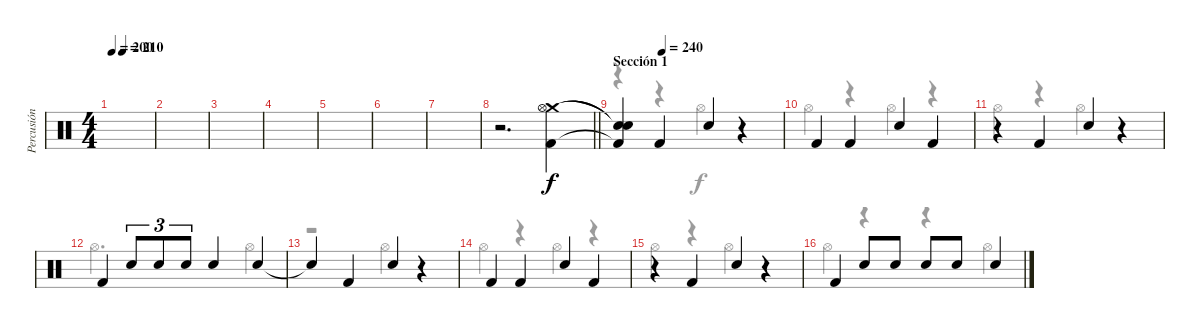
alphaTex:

\track ("Percusión" "Percusión") {instrument percussion}
\staff {score}
\articulation defaults
\voice
\ts (4 4)
\tempo 200
\tempo (210 0.25)
\clef neutral
\ks c
|
|
|
|
|
|
|
\barLineRight lightlight
r.2{d} ("Crash medium (hit)" "Hi-Hat (open)" "Kick (hit) 2").4 |
\section ("" "Sección 1")
\tempo (240 0.25)
("Snare (hit)"{t} "Snare (hit)"{t} "Kick (hit) 2"{t}).4 "Kick (hit) 2".4 "Electric Snare (hit)".4 r.4 |
"Kick (hit) 2".4 "Kick (hit) 2".4 "Electric Snare (hit)".4 "Kick (hit) 2".4 |
r.4 "Kick (hit) 2".4 "Electric Snare (hit)".4 r.4 |
"Kick (hit) 2".4 "Electric Snare (hit)".8{tu (3 2)} "Electric Snare (hit)".8{tu (3 2)} "Electric Snare (hit)".8{tu (3 2)} "Electric Snare (hit)".4 "Electric Snare (hit)".4 |
"Snare (hit)"{t}.4 "Kick (hit) 2".4 "Electric Snare (hit)".4 r.4 |
"Kick (hit) 2".4 "Kick (hit) 2".4 "Electric Snare (hit)".4 "Kick (hit) 2".4 |
r.4 "Kick (hit) 2".4 "Electric Snare (hit)".4 r.4 |
"Kick (hit) 2".4 "Electric Snare (hit)".8 "Electric Snare (hit)".8 "Electric Snare (hit)".8 "Electric Snare (hit)".8 "Electric Snare (hit)".4
\voice
\clef neutral
\ottava regular
\simile none
\ks c
|
|
|
|
|
|
|
\barLineRight lightlight
|
r.4 r.4 "Hi-Hat (open)".4 r.4 |
"Hi-Hat (open)".4 r.4 "Hi-Hat (open)".4 r.4 |
"Hi-Hat (open)".4 r.4 "Hi-Hat (open)".4 r.4 |
"Hi-Hat (open)".2{d} "Hi-Hat (open)".4 |
r.2 "Hi-Hat (open)".4 r.4 |
"Hi-Hat (open)".4 r.4 "Hi-Hat (open)".4 r.4 |
"Hi-Hat (open)".4 r.4 "Hi-Hat (open)".4 r.4 |
"Hi-Hat (open)".4 r.4 r.4 "Hi-Hat (open)".4
